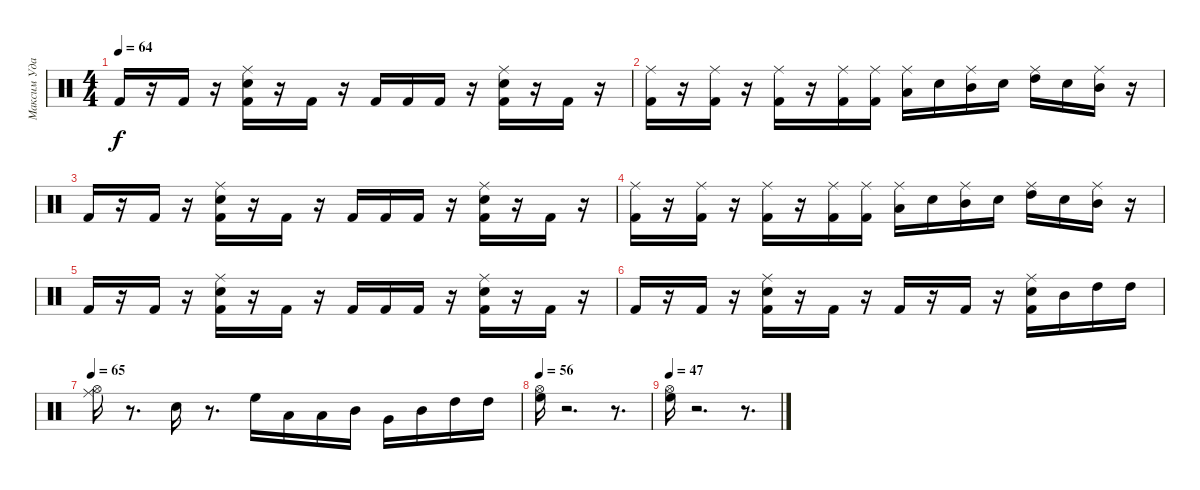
\track ("Максим Удалов" "Максим Уда") {instrument percussion}
\staff {score}
\articulation defaults
\ts (4 4)
\tempo 64
\clef neutral
\ks c "Kick (hit) 2".16{dy f}
r.16 "Kick (hit) 2".16 r.16 ("Electric Snare (hit)" "Ride (middle)" "Kick (hit) 2").16 r.16 "Kick (hit) 2".16 r.16 "Kick (hit) 2".16 "Kick (hit) 2".16 "Kick (hit) 2".16 r.16 ("Kick (hit) 2" "Electric Snare (hit)" "Ride (middle)").16 r.16 "Kick (hit) 2".16 r.16 |
("Kick (hit) 2" "Ride (middle)").16 r.16 ("Kick (hit) 2" "Ride (middle)").16 r.16 ("Ride (middle)" "Kick (hit) 2").16 r.16 ("Ride (middle)" "Kick (hit) 2").16 ("Ride (middle)" "Kick (hit) 2").16 ("Ride (middle)" "Low Tom (hit)").16 "Electric Snare (hit)".16 ("Ride (middle)" "Mid Tom (hit)").16 "Electric Snare (hit)".16 ("Ride (middle)" "High Tom (hit)").16 "Electric Snare (hit)".16 ("Mid Tom (hit)" "Ride (middle)").16 r.16 |
"Kick (hit) 2".16 r.16 "Kick (hit) 2".16 r.16 ("Electric Snare (hit)" "Ride (middle)" "Kick (hit) 2").16 r.16 "Kick (hit) 2".16 r.16 "Kick (hit) 2".16 "Kick (hit) 2".16 "Kick (hit) 2".16 r.16 ("Kick (hit) 2" "Electric Snare (hit)" "Ride (middle)").16 r.16 "Kick (hit) 2".16 r.16 |
("Kick (hit) 2" "Ride (middle)").16 r.16 ("Kick (hit) 2" "Ride (middle)").16 r.16 ("Ride (middle)" "Kick (hit) 2").16 r.16 ("Ride (middle)" "Kick (hit) 2").16 ("Ride (middle)" "Kick (hit) 2").16 ("Ride (middle)" "Low Tom (hit)").16 "Electric Snare (hit)".16 ("Ride (middle)" "Mid Tom (hit)").16 "Electric Snare (hit)".16 ("Ride (middle)" "High Tom (hit)").16 "Electric Snare (hit)".16 ("Mid Tom (hit)" "Ride (middle)").16 r.16 |
"Kick (hit) 2".16 r.16 "Kick (hit) 2".16 r.16 ("Electric Snare (hit)" "Ride (middle)" "Kick (hit) 2").16 r.16 "Kick (hit) 2".16 r.16 "Kick (hit) 2".16 "Kick (hit) 2".16 "Kick (hit) 2".16 r.16 ("Kick (hit) 2" "Electric Snare (hit)" "Ride (middle)").16 r.16 "Kick (hit) 2".16 r.16 |
"Kick (hit) 2".16 r.16 "Kick (hit) 2".16 r.16 ("Kick (hit) 2" "Electric Snare (hit)" "Ride (middle)").16 r.16 "Kick (hit) 2".16 r.16 "Kick (hit) 2".16 r.16 "Kick (hit) 2".16 r.16 ("Kick (hit) 2" "Electric Snare (hit)" "Ride (middle)").16 "Mid Tom (hit)".16 "High Tom (hit)".16 "High Tom (hit)".16 |
\tempo 65
("Ride (middle)" "Hi-Hat (open)").16 r.8{d} "Electric Snare (hit)".16 r.8{d} "High Floor Tom (hit)".16 "Low Tom (hit)".16 "Low Tom (hit)".16 "Mid Tom (hit)".16 "Very Low Tom (hit)".16 "Mid Tom (hit)".16 "High Tom (hit)".16 "High Tom (hit)".16 |
\tempo 56
("Hi-Hat (open)" "High Floor Tom (hit)").16 r.2{d} r.8{d} |
\tempo 47
("Hi-Hat (open)" "High Floor Tom (hit)").16 r.2{d} r.8{d}
